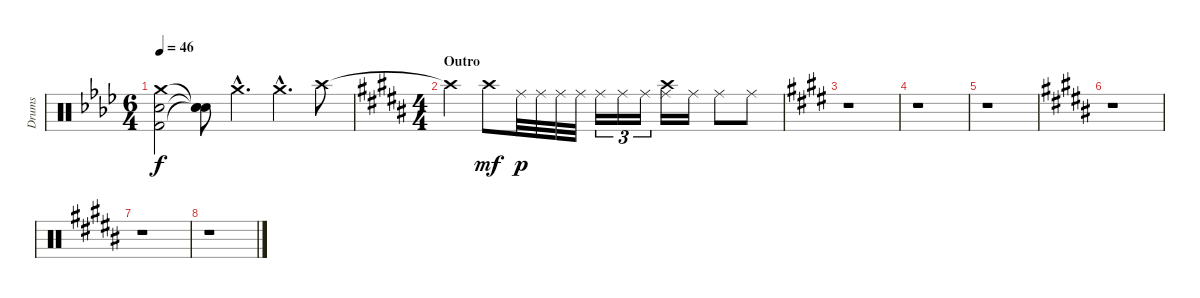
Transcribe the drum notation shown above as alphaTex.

\track ("Drums" "Drums") {instrument percussion}
\staff {score}
\articulation defaults
\ts (6 4)
\tempo 46
\clef neutral
\ks fminor
("Crash medium (hit)" "Snare (hit) 2" "Kick (hit) 2").2{dy f} ("Snare (hit)"{t} "Snare (hit)"{t} "Snare (hit)"{t}).8 "Crash medium (hit)"{hac}.4{d} "Crash medium (hit)"{hac}.4{d} "Crash high (hit)".8 |
\ts (4 4)
\section ("" "Outro")
\ks g#minor "Crash high (hit)"{t}.4 "Crash high (hit)".8{dy mf} "Ride (middle)".32{dy p} "Ride (middle)".32 "Ride (middle)".32 "Ride (middle)".32 "Ride (middle)".16{tu (3 2)} "Ride (middle)".16{tu (3 2)} "Ride (middle)".16{tu (3 2)}
("Ride (middle)" "Crash high (hit)").16 "Ride (middle)".16 "Ride (middle)".8 "Ride (middle)".8 |
\ks c#minor
r.1 |
r.1 |
r.1 |
\ks g#minor
r.1 |
r.1 |
r.1
